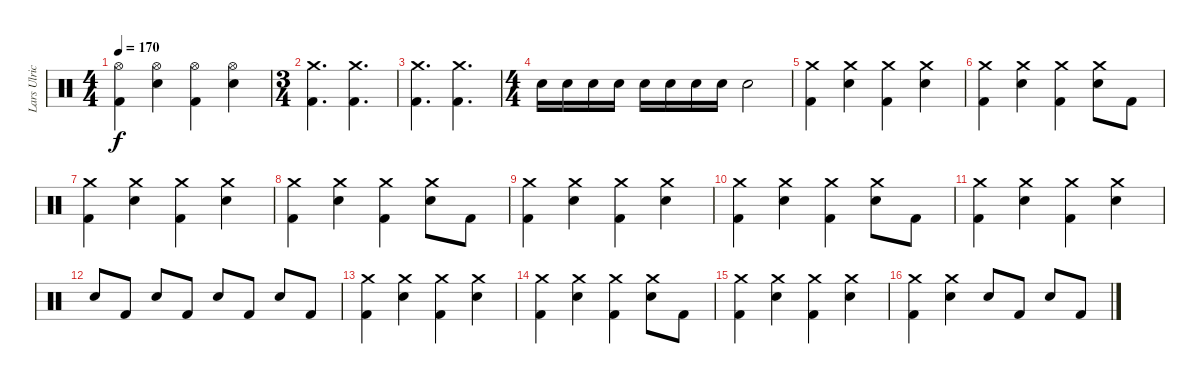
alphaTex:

\track ("Lars Ulrich" "Lars Ulric") {instrument percussion}
\staff {score}
\articulation defaults
\ts (4 4)
\tempo 170
\clef neutral
\ks c
("Hi-Hat (open)" "Kick (hit) 2").4{dy f} ("Hi-Hat (open)" "Electric Snare (hit)").4 ("Hi-Hat (open)" "Kick (hit) 2").4 ("Hi-Hat (open)" "Electric Snare (hit)").4 |
\ts (3 4)
("Crash medium (hit)" "Kick (hit) 2").4{d} ("Crash medium (hit)" "Kick (hit) 2").4{d} |
("Crash medium (hit)" "Kick (hit) 2").4{d} ("Crash medium (hit)" "Kick (hit) 2").4{d} |
\ts (4 4)
"Electric Snare (hit)".16 "Electric Snare (hit)".16 "Electric Snare (hit)".16 "Electric Snare (hit)".16 "Electric Snare (hit)".16 "Electric Snare (hit)".16 "Electric Snare (hit)".16 "Electric Snare (hit)".16 "Electric Snare (hit)".2 |
("Crash medium (hit)" "Kick (hit) 2").4 ("Crash medium (hit)" "Electric Snare (hit)").4 ("Crash medium (hit)" "Kick (hit) 2").4 ("Crash medium (hit)" "Electric Snare (hit)").4 |
("Crash medium (hit)" "Kick (hit) 2").4 ("Crash medium (hit)" "Electric Snare (hit)").4 ("Crash medium (hit)" "Kick (hit) 2").4 ("Crash medium (hit)" "Electric Snare (hit)").8 "Kick (hit) 2".8 |
("Crash medium (hit)" "Kick (hit) 2").4 ("Crash medium (hit)" "Electric Snare (hit)").4 ("Crash medium (hit)" "Kick (hit) 2").4 ("Crash medium (hit)" "Electric Snare (hit)").4 |
("Crash medium (hit)" "Kick (hit) 2").4 ("Crash medium (hit)" "Electric Snare (hit)").4 ("Crash medium (hit)" "Kick (hit) 2").4 ("Crash medium (hit)" "Electric Snare (hit)").8 "Kick (hit) 2".8 |
("Crash medium (hit)" "Kick (hit) 2").4 ("Crash medium (hit)" "Electric Snare (hit)").4 ("Crash medium (hit)" "Kick (hit) 2").4 ("Crash medium (hit)" "Electric Snare (hit)").4 |
("Crash medium (hit)" "Kick (hit) 2").4 ("Crash medium (hit)" "Electric Snare (hit)").4 ("Crash medium (hit)" "Kick (hit) 2").4 ("Crash medium (hit)" "Electric Snare (hit)").8 "Kick (hit) 2".8 |
("Crash medium (hit)" "Kick (hit) 2").4 ("Crash medium (hit)" "Electric Snare (hit)").4 ("Crash medium (hit)" "Kick (hit) 2").4 ("Crash medium (hit)" "Electric Snare (hit)").4 |
"Electric Snare (hit)".8 "Kick (hit) 2".8 "Electric Snare (hit)".8 "Kick (hit) 2".8 "Electric Snare (hit)".8 "Kick (hit) 2".8 "Electric Snare (hit)".8 "Kick (hit) 2".8 |
("Crash medium (hit)" "Kick (hit) 2").4 ("Crash medium (hit)" "Electric Snare (hit)").4 ("Crash medium (hit)" "Kick (hit) 2").4 ("Crash medium (hit)" "Electric Snare (hit)").4 |
("Crash medium (hit)" "Kick (hit) 2").4 ("Crash medium (hit)" "Electric Snare (hit)").4 ("Crash medium (hit)" "Kick (hit) 2").4 ("Crash medium (hit)" "Electric Snare (hit)").8 "Kick (hit) 2".8 |
("Crash medium (hit)" "Kick (hit) 2").4 ("Crash medium (hit)" "Electric Snare (hit)").4 ("Crash medium (hit)" "Kick (hit) 2").4 ("Crash medium (hit)" "Electric Snare (hit)").4 |
("Crash medium (hit)" "Kick (hit) 2").4 ("Crash medium (hit)" "Electric Snare (hit)").4 "Electric Snare (hit)".8 "Kick (hit) 2".8 "Electric Snare (hit)".8 "Kick (hit) 2".8
